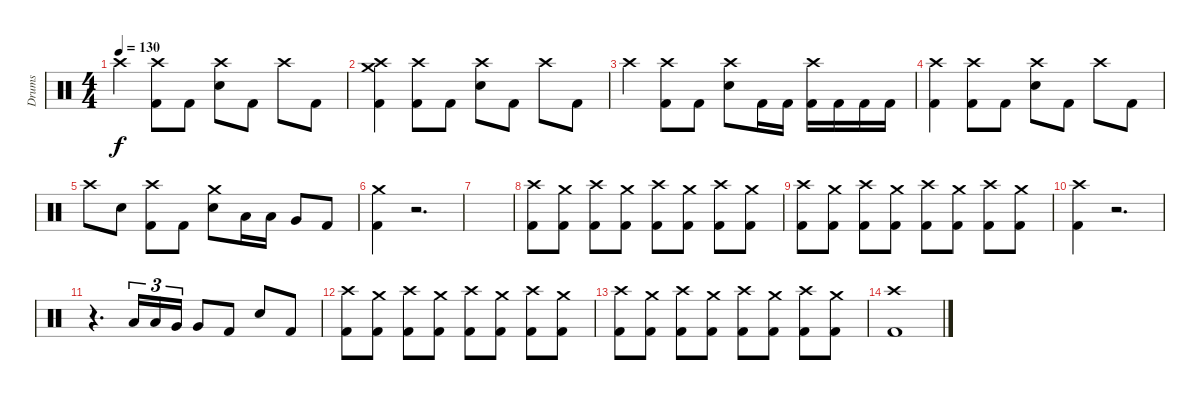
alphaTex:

\track ("Drums" "Drums") {instrument percussion}
\staff {score}
\articulation defaults
\ts (4 4)
\tempo 130
\clef neutral
\ks c "Crash high (hit)".4{dy f}
("Crash high (hit)" "Kick (hit) 2").8 "Kick (hit) 2".8 ("Crash high (hit)" "Electric Snare (hit)").8 "Kick (hit) 2".8 "Crash high (hit)".8 "Kick (hit) 2".8 |
("Crash high (hit)" "Crash medium (hit)" "Kick (hit) 2").4 ("Crash high (hit)" "Kick (hit) 2").8 "Kick (hit) 2".8 ("Crash high (hit)" "Electric Snare (hit)").8 "Kick (hit) 2".8 "Crash high (hit)".8 "Kick (hit) 2".8 |
"Crash high (hit)".4 ("Crash high (hit)" "Kick (hit) 2").8 "Kick (hit) 2".8 ("Crash high (hit)" "Electric Snare (hit)").8 "Kick (hit) 2".16 "Kick (hit) 2".16 ("Crash high (hit)" "Kick (hit) 2").16 "Kick (hit) 2".16 "Kick (hit) 2".16 "Kick (hit) 2".16 |
("Crash high (hit)" "Kick (hit) 2").4 ("Crash high (hit)" "Kick (hit) 2").8 "Kick (hit) 2".8 ("Crash high (hit)" "Electric Snare (hit)").8 "Kick (hit) 2".8 "Crash high (hit)".8 "Kick (hit) 2".8 |
"Crash high (hit)".8 "Electric Snare (hit)".8 ("Crash high (hit)" "Kick (hit) 2").8 "Kick (hit) 2".8 ("Crash medium (hit)" "Electric Snare (hit)").8 "Low Tom (hit)".16 "Low Tom (hit)".16 "Very Low Tom (hit)".8 "Kick (hit) 2".8 |
("Crash medium (hit)" "Kick (hit) 2").4 r.2{d volume 0} |
|
("Crash high (hit)" "Kick (hit) 2").8{volume 16} ("Crash medium (hit)" "Kick (hit) 2").8 ("Crash high (hit)" "Kick (hit) 2").8 ("Crash medium (hit)" "Kick (hit) 2").8 ("Crash high (hit)" "Kick (hit) 2").8 ("Crash medium (hit)" "Kick (hit) 2").8 ("Crash high (hit)" "Kick (hit) 2").8 ("Crash medium (hit)" "Kick (hit) 2").8 |
("Crash high (hit)" "Kick (hit) 2").8 ("Crash medium (hit)" "Kick (hit) 2").8 ("Crash high (hit)" "Kick (hit) 2").8 ("Crash medium (hit)" "Kick (hit) 2").8 ("Crash high (hit)" "Kick (hit) 2").8 ("Crash medium (hit)" "Kick (hit) 2").8 ("Crash high (hit)" "Kick (hit) 2").8 ("Crash medium (hit)" "Kick (hit) 2").8 |
("Crash high (hit)" "Kick (hit) 2").4 r.2{d volume 0} |
r.4{d} "Low Tom (hit)".16{tu (3 2) volume 16} "Low Tom (hit)".16{tu (3 2)} "Very Low Tom (hit)".16{tu (3 2)} "Very Low Tom (hit)".8 "Kick (hit) 2".8 "Electric Snare (hit)".8 "Kick (hit) 2".8 |
("Crash high (hit)" "Kick (hit) 2").8 ("Crash medium (hit)" "Kick (hit) 2").8 ("Crash high (hit)" "Kick (hit) 2").8 ("Crash medium (hit)" "Kick (hit) 2").8 ("Crash high (hit)" "Kick (hit) 2").8 ("Crash medium (hit)" "Kick (hit) 2").8 ("Crash high (hit)" "Kick (hit) 2").8 ("Crash medium (hit)" "Kick (hit) 2").8 |
("Crash high (hit)" "Kick (hit) 2").8 ("Crash medium (hit)" "Kick (hit) 2").8 ("Crash high (hit)" "Kick (hit) 2").8 ("Crash medium (hit)" "Kick (hit) 2").8 ("Crash high (hit)" "Kick (hit) 2").8 ("Crash medium (hit)" "Kick (hit) 2").8 ("Crash high (hit)" "Kick (hit) 2").8 ("Crash medium (hit)" "Kick (hit) 2").8 |
("Crash high (hit)" "Kick (hit) 2").1
